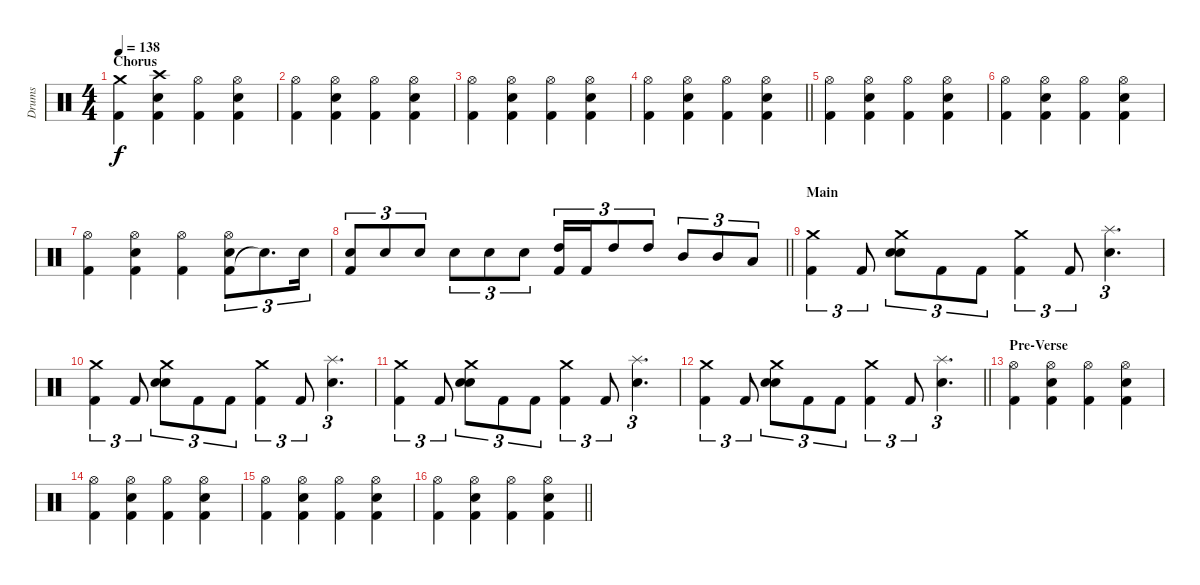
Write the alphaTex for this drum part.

\track ("Drums" "Drums") {instrument percussion}
\staff {score}
\articulation defaults
\ts (4 4)
\section ("" "Chorus")
\tempo 138
\clef neutral
\ks c
("Kick (hit) 2" "Crash medium (hit)").4{dy f} ("Kick (hit) 2" "Snare (hit) 2" "Crash high (hit)").4 ("Kick (hit) 2" "Hi-Hat (open)").4 ("Kick (hit) 2" "Snare (hit) 2" "Hi-Hat (open)").4 |
("Kick (hit) 2" "Hi-Hat (open)").4 ("Kick (hit) 2" "Snare (hit) 2" "Hi-Hat (open)").4 ("Kick (hit) 2" "Hi-Hat (open)").4 ("Kick (hit) 2" "Snare (hit) 2" "Hi-Hat (open)").4 |
("Kick (hit) 2" "Hi-Hat (open)").4 ("Kick (hit) 2" "Snare (hit) 2" "Hi-Hat (open)").4 ("Kick (hit) 2" "Hi-Hat (open)").4 ("Kick (hit) 2" "Snare (hit) 2" "Hi-Hat (open)").4 |
\barLineRight lightlight
("Kick (hit) 2" "Hi-Hat (open)").4 ("Kick (hit) 2" "Snare (hit) 2" "Hi-Hat (open)").4 ("Kick (hit) 2" "Hi-Hat (open)").4 ("Kick (hit) 2" "Snare (hit) 2" "Hi-Hat (open)").4 |
\section ("" "")
("Kick (hit) 2" "Hi-Hat (open)").4 ("Kick (hit) 2" "Snare (hit) 2" "Hi-Hat (open)").4 ("Kick (hit) 2" "Hi-Hat (open)").4 ("Kick (hit) 2" "Snare (hit) 2" "Hi-Hat (open)").4 |
("Kick (hit) 2" "Hi-Hat (open)").4 ("Kick (hit) 2" "Snare (hit) 2" "Hi-Hat (open)").4 ("Kick (hit) 2" "Hi-Hat (open)").4 ("Kick (hit) 2" "Snare (hit) 2" "Hi-Hat (open)").4 |
("Kick (hit) 2" "Hi-Hat (open)").4 ("Kick (hit) 2" "Snare (hit) 2" "Hi-Hat (open)").4 ("Kick (hit) 2" "Hi-Hat (open)").4 ("Kick (hit) 2" "Snare (hit) 2" "Hi-Hat (open)").8{tu (3 2)} "Snare (hit)"{t}.8{d tu (3 2)} "Snare (hit) 2".16{tu (3 2)} |
\barLineRight lightlight
("Kick (hit) 2" "Snare (hit) 2").8{tu (3 2)} "Snare (hit) 2".8{tu (3 2)} "Snare (hit) 2".8{tu (3 2)} "Snare (hit) 2".8{tu (3 2)} "Snare (hit) 2".8{tu (3 2)} "Snare (hit) 2".8{tu (3 2)} ("Kick (hit) 2" "High Tom (hit)").16{tu (3 2)} "Kick (hit) 2".16{tu (3 2)} "High Tom (hit)".8{tu (3 2)} "High Tom (hit)".8{tu (3 2)} "Mid Tom (hit)".8{tu (3 2)} "Mid Tom (hit)".8{tu (3 2)} "Low Tom (hit)".8{tu (3 2)} |
\section ("" "Main")
("Kick (hit) 2" "Crash medium (hit)").4{tu (3 2)} "Kick (hit) 2".8{tu (3 2)} ("Snare (hit) 2" "Snare (hit) 2" "Crash medium (hit)").8{tu (3 2)} "Kick (hit) 2".8{tu (3 2)} "Kick (hit) 2".8{tu (3 2)} ("Kick (hit) 2" "Crash medium (hit)").4{tu (3 2)} "Kick (hit) 2".8{tu (3 2)} ("Snare (hit) 2" "Splash (hit)").4{d tu (3 2)} |
("Kick (hit) 2" "Crash medium (hit)").4{tu (3 2)} "Kick (hit) 2".8{tu (3 2)} ("Snare (hit) 2" "Snare (hit) 2" "Crash medium (hit)").8{tu (3 2)} "Kick (hit) 2".8{tu (3 2)} "Kick (hit) 2".8{tu (3 2)} ("Kick (hit) 2" "Crash medium (hit)").4{tu (3 2)} "Kick (hit) 2".8{tu (3 2)} ("Snare (hit) 2" "Splash (hit)").4{d tu (3 2)} |
("Kick (hit) 2" "Crash medium (hit)").4{tu (3 2)} "Kick (hit) 2".8{tu (3 2)} ("Snare (hit) 2" "Snare (hit) 2" "Crash medium (hit)").8{tu (3 2)} "Kick (hit) 2".8{tu (3 2)} "Kick (hit) 2".8{tu (3 2)} ("Kick (hit) 2" "Crash medium (hit)").4{tu (3 2)} "Kick (hit) 2".8{tu (3 2)} ("Snare (hit) 2" "Splash (hit)").4{d tu (3 2)} |
\barLineRight lightlight
("Kick (hit) 2" "Crash medium (hit)").4{tu (3 2)} "Kick (hit) 2".8{tu (3 2)} ("Snare (hit) 2" "Snare (hit) 2" "Crash medium (hit)").8{tu (3 2)} "Kick (hit) 2".8{tu (3 2)} "Kick (hit) 2".8{tu (3 2)} ("Kick (hit) 2" "Crash medium (hit)").4{tu (3 2)} "Kick (hit) 2".8{tu (3 2)} ("Snare (hit) 2" "Splash (hit)").4{d tu (3 2)} |
\section ("" "Pre-Verse")
("Kick (hit) 2" "Hi-Hat (open)").4 ("Kick (hit) 2" "Snare (hit) 2" "Hi-Hat (open)").4 ("Kick (hit) 2" "Hi-Hat (open)").4 ("Kick (hit) 2" "Snare (hit) 2" "Hi-Hat (open)").4 |
("Kick (hit) 2" "Hi-Hat (open)").4 ("Kick (hit) 2" "Snare (hit) 2" "Hi-Hat (open)").4 ("Kick (hit) 2" "Hi-Hat (open)").4 ("Kick (hit) 2" "Snare (hit) 2" "Hi-Hat (open)").4 |
("Kick (hit) 2" "Hi-Hat (open)").4 ("Kick (hit) 2" "Snare (hit) 2" "Hi-Hat (open)").4 ("Kick (hit) 2" "Hi-Hat (open)").4 ("Kick (hit) 2" "Snare (hit) 2" "Hi-Hat (open)").4 |
\barLineRight lightlight
("Kick (hit) 2" "Hi-Hat (open)").4 ("Kick (hit) 2" "Snare (hit) 2" "Hi-Hat (open)").4 ("Kick (hit) 2" "Hi-Hat (open)").4 ("Kick (hit) 2" "Snare (hit) 2" "Hi-Hat (open)").4
